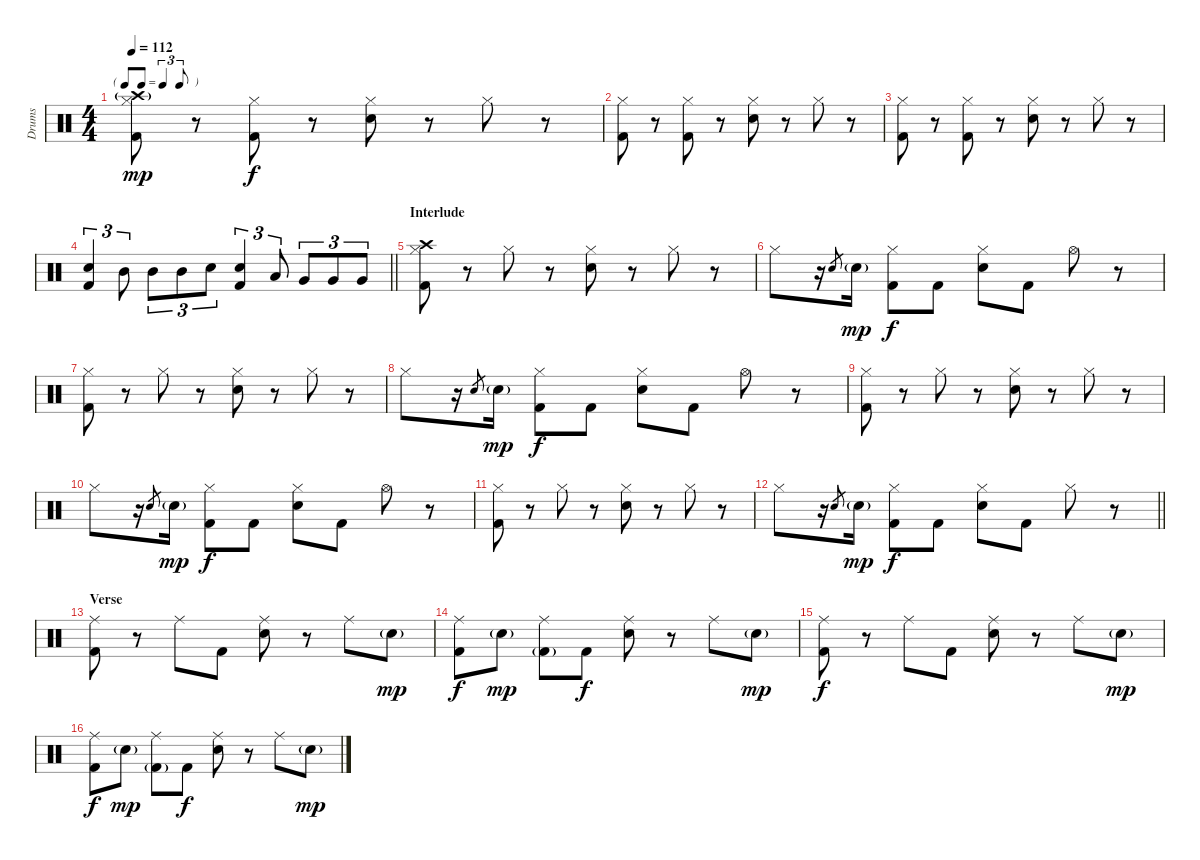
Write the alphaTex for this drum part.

\track ("Drums" "Drums") {instrument percussion}
\staff {score}
\articulation defaults
\ts (4 4)
\tf triplet8th
\tempo 112
\clef neutral
\ks c
("Crash high (hit)"{g} "Hi-Hat (closed)" "Kick (hit) 2").8{dy mp} r.8 ("Hi-Hat (closed)" "Kick (hit) 2").8{dy f} r.8 ("Hi-Hat (closed)" "Snare (hit) 2").8 r.8 "Hi-Hat (closed)".8 r.8 |
("Hi-Hat (closed)" "Kick (hit) 2").8 r.8 ("Hi-Hat (closed)" "Kick (hit) 2").8 r.8 ("Hi-Hat (closed)" "Snare (hit) 2").8 r.8 "Hi-Hat (closed)".8 r.8 |
("Hi-Hat (closed)" "Kick (hit) 2").8 r.8 ("Hi-Hat (closed)" "Kick (hit) 2").8 r.8 ("Hi-Hat (closed)" "Snare (hit) 2").8 r.8 "Hi-Hat (closed)".8 r.8 |
\barLineRight lightlight
("Snare (hit) 2" "Kick (hit) 2").4{tu (3 2)} "Mid Tom (hit)".8{tu (3 2)} "Mid Tom (hit)".8{tu (3 2)} "Mid Tom (hit)".8{tu (3 2)} "Snare (hit) 2".8{tu (3 2)} ("Snare (hit) 2" "Kick (hit) 2").4{tu (3 2)} "Low Tom (hit)".8{tu (3 2)} "Very Low Tom (hit)".8{tu (3 2)} "Very Low Tom (hit)".8{tu (3 2)} "Very Low Tom (hit)".8{tu (3 2)} |
\section ("" "Interlude")
("Crash high (hit)" "Hi-Hat (closed)" "Kick (hit) 2").8 r.8 "Hi-Hat (closed)".8 r.8 ("Hi-Hat (closed)" "Snare (hit) 2").8 r.8 "Hi-Hat (closed)".8 r.8 |
"Hi-Hat (closed)".8 r.16 "Snare (hit) 2".8{gr} "Snare (hit) 2"{g}.16{dy mp} ("Hi-Hat (closed)" "Kick (hit) 2").8{dy f} "Kick (hit) 2".8 ("Hi-Hat (closed)" "Snare (hit) 2").8 "Kick (hit) 2".8 "Hi-Hat (open)".8 r.8 |
("Hi-Hat (closed)" "Kick (hit) 2").8 r.8 "Hi-Hat (closed)".8 r.8 ("Hi-Hat (closed)" "Snare (hit) 2").8 r.8 "Hi-Hat (closed)".8 r.8 |
"Hi-Hat (closed)".8 r.16 "Snare (hit) 2".8{gr} "Snare (hit) 2"{g}.16{dy mp} ("Hi-Hat (closed)" "Kick (hit) 2").8{dy f} "Kick (hit) 2".8 ("Hi-Hat (closed)" "Snare (hit) 2").8 "Kick (hit) 2".8 "Hi-Hat (open)".8 r.8 |
("Hi-Hat (closed)" "Kick (hit) 2").8 r.8 "Hi-Hat (closed)".8 r.8 ("Hi-Hat (closed)" "Snare (hit) 2").8 r.8 "Hi-Hat (closed)".8 r.8 |
"Hi-Hat (closed)".8 r.16 "Snare (hit) 2".8{gr} "Snare (hit) 2"{g}.16{dy mp} ("Hi-Hat (closed)" "Kick (hit) 2").8{dy f} "Kick (hit) 2".8 ("Hi-Hat (closed)" "Snare (hit) 2").8 "Kick (hit) 2".8 "Hi-Hat (open)".8 r.8 |
("Hi-Hat (closed)" "Kick (hit) 2").8 r.8 "Hi-Hat (closed)".8 r.8 ("Hi-Hat (closed)" "Snare (hit) 2").8 r.8 "Hi-Hat (closed)".8 r.8 |
\barLineRight lightlight "Hi-Hat (closed)".8
r.16 "Snare (hit) 2".8{gr} "Snare (hit) 2"{g}.16{dy mp} ("Hi-Hat (closed)" "Kick (hit) 2").8{dy f} "Kick (hit) 2".8 ("Hi-Hat (closed)" "Snare (hit) 2").8 "Kick (hit) 2".8 "Hi-Hat (closed)".8 r.8 |
\section ("" "Verse")
("Ride (middle)" "Kick (hit) 2").8 r.8 "Ride (middle)".8 "Kick (hit) 2".8 ("Ride (middle)" "Snare (hit) 2").8 r.8 "Ride (middle)".8 "Snare (hit) 2"{g}.8{dy mp} |
("Ride (middle)" "Kick (hit) 2").8{dy f} "Snare (hit) 2"{g}.8{dy mp} ("Ride (middle)" "Kick (hit) 2"{g}).8 "Kick (hit) 2".8{dy f} ("Ride (middle)" "Snare (hit) 2").8 r.8 "Ride (middle)".8 "Snare (hit) 2"{g}.8{dy mp} |
("Ride (middle)" "Kick (hit) 2").8{dy f} r.8 "Ride (middle)".8 "Kick (hit) 2".8 ("Ride (middle)" "Snare (hit) 2").8 r.8 "Ride (middle)".8 "Snare (hit) 2"{g}.8{dy mp} |
("Ride (middle)" "Kick (hit) 2").8{dy f} "Snare (hit) 2"{g}.8{dy mp} ("Ride (middle)" "Kick (hit) 2"{g}).8 "Kick (hit) 2".8{dy f} ("Ride (middle)" "Snare (hit) 2").8 r.8 "Ride (middle)".8 "Snare (hit) 2"{g}.8{dy mp}
